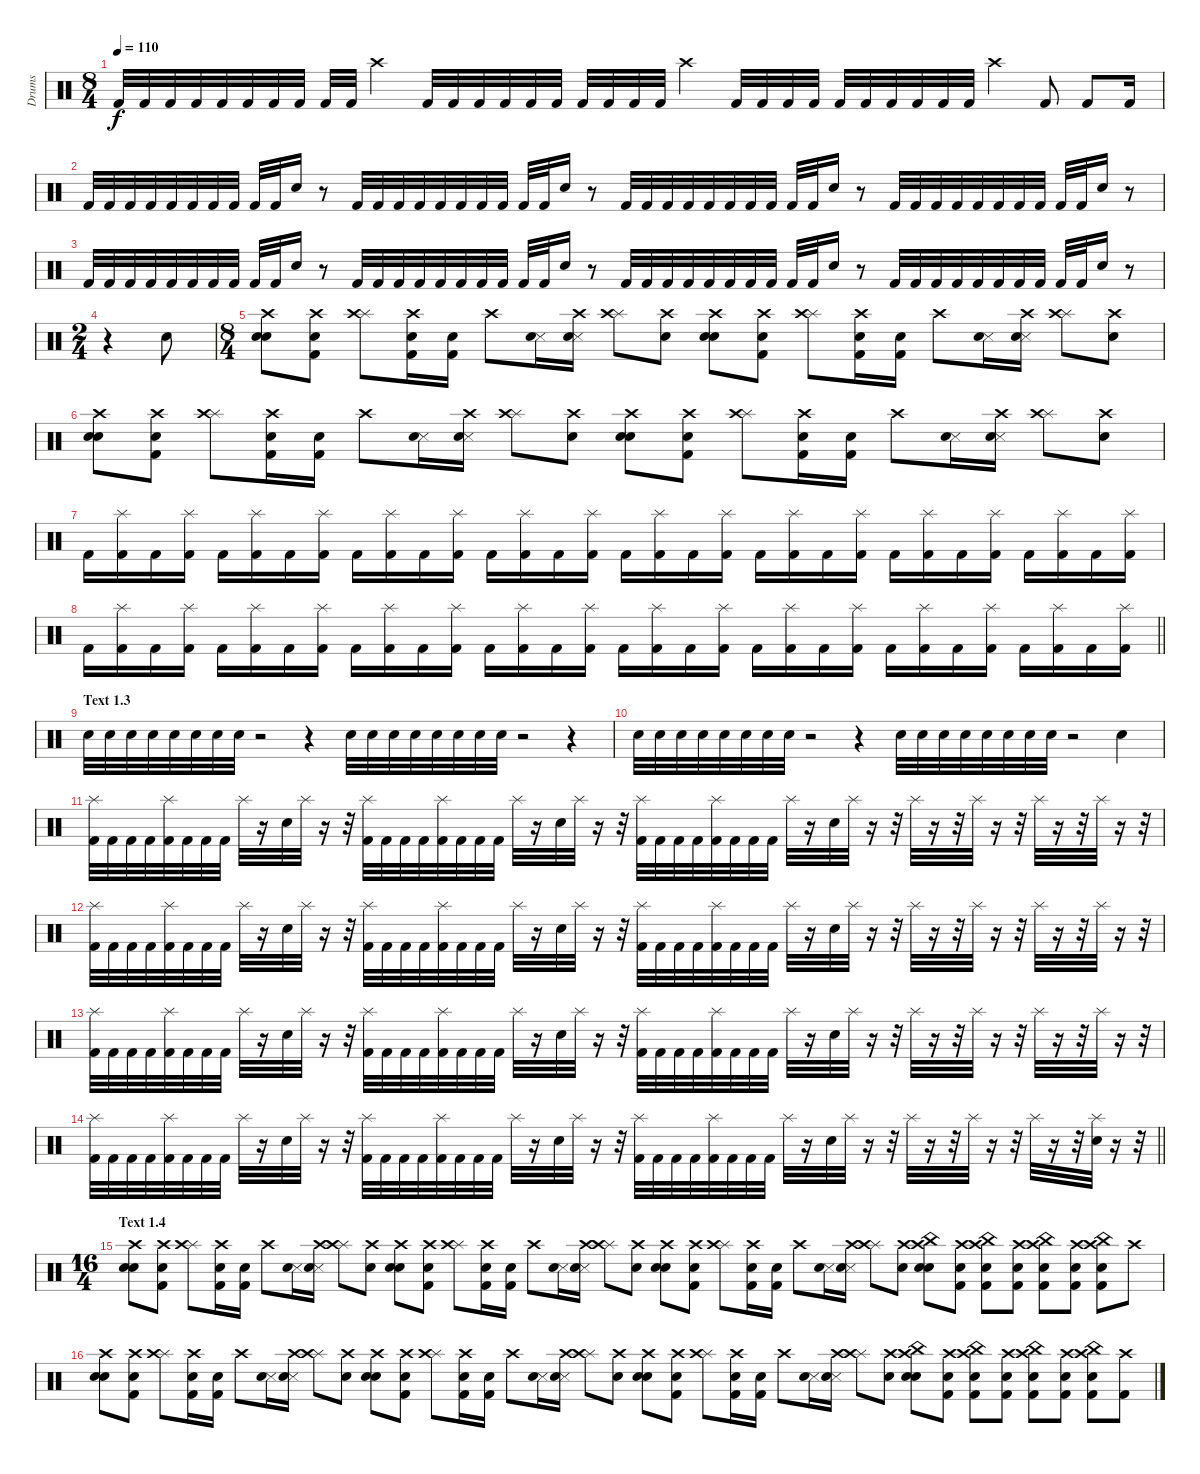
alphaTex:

\track ("Drums" "Drums") {instrument percussion}
\staff {score}
\articulation defaults
\ts (8 4)
\tempo 110
\clef neutral
\ks c "Kick (hit) 2".32{dy f} "Kick (hit) 2".32 "Kick (hit) 2".32 "Kick (hit) 2".32 "Kick (hit) 2".32 "Kick (hit) 2".32 "Kick (hit) 2".32 "Kick (hit) 2".32 "Kick (hit) 2".32 "Kick (hit) 2".32 "Crash high (hit)".4 "Kick (hit) 2".32 "Kick (hit) 2".32 "Kick (hit) 2".32 "Kick (hit) 2".32 "Kick (hit) 2".32 "Kick (hit) 2".32 "Kick (hit) 2".32 "Kick (hit) 2".32 "Kick (hit) 2".32 "Kick (hit) 2".32 "Crash high (hit)".4 "Kick (hit) 2".32 "Kick (hit) 2".32 "Kick (hit) 2".32 "Kick (hit) 2".32 "Kick (hit) 2".32 "Kick (hit) 2".32 "Kick (hit) 2".32 "Kick (hit) 2".32 "Kick (hit) 2".32 "Kick (hit) 2".32 "Crash high (hit)".4 "Kick (hit) 2".8 "Kick (hit) 2".8 "Kick (hit) 2".16
|
"Kick (hit) 2".32 "Kick (hit) 2".32 "Kick (hit) 2".32 "Kick (hit) 2".32 "Kick (hit) 2".32 "Kick (hit) 2".32 "Kick (hit) 2".32 "Kick (hit) 2".32 "Kick (hit) 2".32 "Kick (hit) 2".32 "Snare (hit) 2".16 r.8 "Kick (hit) 2".32 "Kick (hit) 2".32 "Kick (hit) 2".32 "Kick (hit) 2".32 "Kick (hit) 2".32 "Kick (hit) 2".32 "Kick (hit) 2".32 "Kick (hit) 2".32 "Kick (hit) 2".32 "Kick (hit) 2".32 "Snare (hit) 2".16 r.8 "Kick (hit) 2".32 "Kick (hit) 2".32 "Kick (hit) 2".32 "Kick (hit) 2".32 "Kick (hit) 2".32 "Kick (hit) 2".32 "Kick (hit) 2".32 "Kick (hit) 2".32 "Kick (hit) 2".32 "Kick (hit) 2".32 "Snare (hit) 2".16 r.8 "Kick (hit) 2".32 "Kick (hit) 2".32 "Kick (hit) 2".32 "Kick (hit) 2".32 "Kick (hit) 2".32 "Kick (hit) 2".32 "Kick (hit) 2".32 "Kick (hit) 2".32 "Kick (hit) 2".32 "Kick (hit) 2".32 "Snare (hit) 2".16 r.8 |
"Kick (hit) 2".32 "Kick (hit) 2".32 "Kick (hit) 2".32 "Kick (hit) 2".32 "Kick (hit) 2".32 "Kick (hit) 2".32 "Kick (hit) 2".32 "Kick (hit) 2".32 "Kick (hit) 2".32 "Kick (hit) 2".32 "Snare (hit) 2".16 r.8 "Kick (hit) 2".32 "Kick (hit) 2".32 "Kick (hit) 2".32 "Kick (hit) 2".32 "Kick (hit) 2".32 "Kick (hit) 2".32 "Kick (hit) 2".32 "Kick (hit) 2".32 "Kick (hit) 2".32 "Kick (hit) 2".32 "Snare (hit) 2".16 r.8 "Kick (hit) 2".32 "Kick (hit) 2".32 "Kick (hit) 2".32 "Kick (hit) 2".32 "Kick (hit) 2".32 "Kick (hit) 2".32 "Kick (hit) 2".32 "Kick (hit) 2".32 "Kick (hit) 2".32 "Kick (hit) 2".32 "Snare (hit) 2".16 r.8 "Kick (hit) 2".32 "Kick (hit) 2".32 "Kick (hit) 2".32 "Kick (hit) 2".32 "Kick (hit) 2".32 "Kick (hit) 2".32 "Kick (hit) 2".32 "Kick (hit) 2".32 "Kick (hit) 2".32 "Kick (hit) 2".32 "Snare (hit) 2".16 r.8 |
\ts (2 4)
r.4 "Snare (hit) 2".8 |
\ts (8 4)
("Metronome (bell)" "Snare (hit) 2" "Crash high (hit)").8 ("Kick (hit) 2" "Snare (hit) 2" "Crash high (hit)").8 ("Splash (hit)" "Crash high (hit)").8 ("Kick (hit) 2" "Snare (hit) 2" "Crash high (hit)").16 ("Kick (hit) 2" "Snare (hit) 2").16 "Crash high (hit)".8 ("Metronome (hit)" "Snare (hit) 2").16 ("Metronome (hit)" "Snare (hit) 2" "Crash high (hit)").16 ("Splash (hit)" "Crash high (hit)").8 ("Snare (hit) 2" "Crash high (hit)").8 ("Metronome (bell)" "Snare (hit) 2" "Crash high (hit)").8 ("Kick (hit) 2" "Snare (hit) 2" "Crash high (hit)").8 ("Splash (hit)" "Crash high (hit)").8 ("Kick (hit) 2" "Snare (hit) 2" "Crash high (hit)").16 ("Kick (hit) 2" "Snare (hit) 2").16 "Crash high (hit)".8 ("Metronome (hit)" "Snare (hit) 2").16 ("Metronome (hit)" "Snare (hit) 2" "Crash high (hit)").16 ("Splash (hit)" "Crash high (hit)").8 ("Snare (hit) 2" "Crash high (hit)").8 |
("Metronome (bell)" "Snare (hit) 2" "Crash high (hit)").8 ("Kick (hit) 2" "Snare (hit) 2" "Crash high (hit)").8 ("Splash (hit)" "Crash high (hit)").8 ("Kick (hit) 2" "Snare (hit) 2" "Crash high (hit)").16 ("Kick (hit) 2" "Snare (hit) 2").16 "Crash high (hit)".8 ("Metronome (hit)" "Snare (hit) 2").16 ("Metronome (hit)" "Snare (hit) 2" "Crash high (hit)").16 ("Splash (hit)" "Crash high (hit)").8 ("Snare (hit) 2" "Crash high (hit)").8 ("Metronome (bell)" "Snare (hit) 2" "Crash high (hit)").8 ("Kick (hit) 2" "Snare (hit) 2" "Crash high (hit)").8 ("Splash (hit)" "Crash high (hit)").8 ("Kick (hit) 2" "Snare (hit) 2" "Crash high (hit)").16 ("Kick (hit) 2" "Snare (hit) 2").16 "Crash high (hit)".8 ("Metronome (hit)" "Snare (hit) 2").16 ("Metronome (hit)" "Snare (hit) 2" "Crash high (hit)").16 ("Splash (hit)" "Crash high (hit)").8 ("Snare (hit) 2" "Crash high (hit)").8 |
"Kick (hit) 2".16 ("Kick (hit) 2" "Splash (hit)").16 "Kick (hit) 2".16 ("Kick (hit) 2" "Splash (hit)").16 "Kick (hit) 2".16 ("Kick (hit) 2" "Splash (hit)").16 "Kick (hit) 2".16 ("Kick (hit) 2" "Splash (hit)").16 "Kick (hit) 2".16 ("Kick (hit) 2" "Splash (hit)").16 "Kick (hit) 2".16 ("Kick (hit) 2" "Splash (hit)").16 "Kick (hit) 2".16 ("Kick (hit) 2" "Splash (hit)").16 "Kick (hit) 2".16 ("Kick (hit) 2" "Splash (hit)").16 "Kick (hit) 2".16 ("Kick (hit) 2" "Splash (hit)").16 "Kick (hit) 2".16 ("Kick (hit) 2" "Splash (hit)").16 "Kick (hit) 2".16 ("Kick (hit) 2" "Splash (hit)").16 "Kick (hit) 2".16 ("Kick (hit) 2" "Splash (hit)").16 "Kick (hit) 2".16 ("Kick (hit) 2" "Splash (hit)").16 "Kick (hit) 2".16 ("Kick (hit) 2" "Splash (hit)").16 "Kick (hit) 2".16 ("Kick (hit) 2" "Splash (hit)").16 "Kick (hit) 2".16 ("Kick (hit) 2" "Splash (hit)").16 |
\barLineRight lightlight "Kick (hit) 2".16
("Kick (hit) 2" "Splash (hit)").16 "Kick (hit) 2".16 ("Kick (hit) 2" "Splash (hit)").16 "Kick (hit) 2".16 ("Kick (hit) 2" "Splash (hit)").16 "Kick (hit) 2".16 ("Kick (hit) 2" "Splash (hit)").16 "Kick (hit) 2".16 ("Kick (hit) 2" "Splash (hit)").16 "Kick (hit) 2".16 ("Kick (hit) 2" "Splash (hit)").16 "Kick (hit) 2".16 ("Kick (hit) 2" "Splash (hit)").16 "Kick (hit) 2".16 ("Kick (hit) 2" "Splash (hit)").16 "Kick (hit) 2".16 ("Kick (hit) 2" "Splash (hit)").16 "Kick (hit) 2".16 ("Kick (hit) 2" "Splash (hit)").16 "Kick (hit) 2".16 ("Kick (hit) 2" "Splash (hit)").16 "Kick (hit) 2".16 ("Kick (hit) 2" "Splash (hit)").16 "Kick (hit) 2".16 ("Kick (hit) 2" "Splash (hit)").16 "Kick (hit) 2".16 ("Kick (hit) 2" "Splash (hit)").16 "Kick (hit) 2".16 ("Kick (hit) 2" "Splash (hit)").16 "Kick (hit) 2".16 ("Kick (hit) 2" "Splash (hit)").16 |
\section ("" "Text 1.3")
"Snare (hit) 2".32 "Snare (hit) 2".32 "Snare (hit) 2".32 "Snare (hit) 2".32 "Snare (hit) 2".32 "Snare (hit) 2".32 "Snare (hit) 2".32 "Snare (hit) 2".32 r.2 r.4 "Snare (hit) 2".32 "Snare (hit) 2".32 "Snare (hit) 2".32 "Snare (hit) 2".32 "Snare (hit) 2".32 "Snare (hit) 2".32 "Snare (hit) 2".32 "Snare (hit) 2".32 r.2 r.4 |
"Snare (hit) 2".32 "Snare (hit) 2".32 "Snare (hit) 2".32 "Snare (hit) 2".32 "Snare (hit) 2".32 "Snare (hit) 2".32 "Snare (hit) 2".32 "Snare (hit) 2".32 r.2 r.4 "Snare (hit) 2".32 "Snare (hit) 2".32 "Snare (hit) 2".32 "Snare (hit) 2".32 "Snare (hit) 2".32 "Snare (hit) 2".32 "Snare (hit) 2".32 "Snare (hit) 2".32 r.2 "Snare (hit) 2".4 |
("Kick (hit) 2" "Splash (hit)").32 "Kick (hit) 2".32 "Kick (hit) 2".32 "Kick (hit) 2".32 ("Kick (hit) 2" "Splash (hit)").32 "Kick (hit) 2".32 "Kick (hit) 2".32 "Kick (hit) 2".32 "Splash (hit)".32 r.16 "Snare (hit) 2".32 "Splash (hit)".32 r.16 r.32 ("Kick (hit) 2" "Splash (hit)").32 "Kick (hit) 2".32 "Kick (hit) 2".32 "Kick (hit) 2".32 ("Kick (hit) 2" "Splash (hit)").32 "Kick (hit) 2".32 "Kick (hit) 2".32 "Kick (hit) 2".32 "Splash (hit)".32 r.16 "Snare (hit) 2".32 "Splash (hit)".32 r.16 r.32 ("Kick (hit) 2" "Splash (hit)").32 "Kick (hit) 2".32 "Kick (hit) 2".32 "Kick (hit) 2".32 ("Kick (hit) 2" "Splash (hit)").32 "Kick (hit) 2".32 "Kick (hit) 2".32 "Kick (hit) 2".32 "Splash (hit)".32 r.16 "Snare (hit) 2".32 "Splash (hit)".32 r.16 r.32 "Splash (hit)".32 r.16 r.32 "Splash (hit)".32 r.16 r.32 "Splash (hit)".32 r.16 r.32 "Splash (hit)".32 r.16 r.32 |
("Kick (hit) 2" "Splash (hit)").32 "Kick (hit) 2".32 "Kick (hit) 2".32 "Kick (hit) 2".32 ("Kick (hit) 2" "Splash (hit)").32 "Kick (hit) 2".32 "Kick (hit) 2".32 "Kick (hit) 2".32 "Splash (hit)".32 r.16 "Snare (hit) 2".32 "Splash (hit)".32 r.16 r.32 ("Kick (hit) 2" "Splash (hit)").32 "Kick (hit) 2".32 "Kick (hit) 2".32 "Kick (hit) 2".32 ("Kick (hit) 2" "Splash (hit)").32 "Kick (hit) 2".32 "Kick (hit) 2".32 "Kick (hit) 2".32 "Splash (hit)".32 r.16 "Snare (hit) 2".32 "Splash (hit)".32 r.16 r.32 ("Kick (hit) 2" "Splash (hit)").32 "Kick (hit) 2".32 "Kick (hit) 2".32 "Kick (hit) 2".32 ("Kick (hit) 2" "Splash (hit)").32 "Kick (hit) 2".32 "Kick (hit) 2".32 "Kick (hit) 2".32 "Splash (hit)".32 r.16 "Snare (hit) 2".32 "Splash (hit)".32 r.16 r.32 "Splash (hit)".32 r.16 r.32 "Splash (hit)".32 r.16 r.32 "Splash (hit)".32 r.16 r.32 "Splash (hit)".32 r.16 r.32 |
("Kick (hit) 2" "Splash (hit)").32 "Kick (hit) 2".32 "Kick (hit) 2".32 "Kick (hit) 2".32 ("Kick (hit) 2" "Splash (hit)").32 "Kick (hit) 2".32 "Kick (hit) 2".32 "Kick (hit) 2".32 "Splash (hit)".32 r.16 "Snare (hit) 2".32 "Splash (hit)".32 r.16 r.32 ("Kick (hit) 2" "Splash (hit)").32 "Kick (hit) 2".32 "Kick (hit) 2".32 "Kick (hit) 2".32 ("Kick (hit) 2" "Splash (hit)").32 "Kick (hit) 2".32 "Kick (hit) 2".32 "Kick (hit) 2".32 "Splash (hit)".32 r.16 "Snare (hit) 2".32 "Splash (hit)".32 r.16 r.32 ("Kick (hit) 2" "Splash (hit)").32 "Kick (hit) 2".32 "Kick (hit) 2".32 "Kick (hit) 2".32 ("Kick (hit) 2" "Splash (hit)").32 "Kick (hit) 2".32 "Kick (hit) 2".32 "Kick (hit) 2".32 "Splash (hit)".32 r.16 "Snare (hit) 2".32 "Splash (hit)".32 r.16 r.32 "Splash (hit)".32 r.16 r.32 "Splash (hit)".32 r.16 r.32 "Splash (hit)".32 r.16 r.32 "Splash (hit)".32 r.16 r.32 |
\barLineRight lightlight
("Kick (hit) 2" "Splash (hit)").32 "Kick (hit) 2".32 "Kick (hit) 2".32 "Kick (hit) 2".32 ("Kick (hit) 2" "Splash (hit)").32 "Kick (hit) 2".32 "Kick (hit) 2".32 "Kick (hit) 2".32 "Splash (hit)".32 r.16 "Snare (hit) 2".32 "Splash (hit)".32 r.16 r.32 ("Kick (hit) 2" "Splash (hit)").32 "Kick (hit) 2".32 "Kick (hit) 2".32 "Kick (hit) 2".32 ("Kick (hit) 2" "Splash (hit)").32 "Kick (hit) 2".32 "Kick (hit) 2".32 "Kick (hit) 2".32 "Splash (hit)".32 r.16 "Snare (hit) 2".32 "Splash (hit)".32 r.16 r.32 ("Kick (hit) 2" "Splash (hit)").32 "Kick (hit) 2".32 "Kick (hit) 2".32 "Kick (hit) 2".32 ("Kick (hit) 2" "Splash (hit)").32 "Kick (hit) 2".32 "Kick (hit) 2".32 "Kick (hit) 2".32 "Splash (hit)".32 r.16 "Snare (hit) 2".32 "Splash (hit)".32 r.16 r.32 "Splash (hit)".32 r.16 r.32 "Splash (hit)".32 r.16 r.32 "Splash (hit)".32 r.16 r.32 ("Snare (hit) 2" "Splash (hit)").32 r.16 r.32 |
\ts (16 4)
\section ("" "Text 1.4")
("Metronome (bell)" "Snare (hit) 2" "Crash high (hit)").8 ("Kick (hit) 2" "Snare (hit) 2" "Crash high (hit)").8 ("Splash (hit)" "Crash high (hit)").8 ("Kick (hit) 2" "Snare (hit) 2" "Crash high (hit)").16 ("Kick (hit) 2" "Snare (hit) 2").16 "Crash high (hit)".8 ("Metronome (hit)" "Snare (hit) 2").16 ("Metronome (hit)" "Snare (hit) 2" "Crash high (hit)").16 ("Splash (hit)" "Crash high (hit)").8 ("Snare (hit) 2" "Crash high (hit)").8 ("Metronome (bell)" "Snare (hit) 2" "Crash high (hit)").8 ("Kick (hit) 2" "Snare (hit) 2" "Crash high (hit)").8 ("Splash (hit)" "Crash high (hit)").8 ("Kick (hit) 2" "Snare (hit) 2" "Crash high (hit)").16 ("Kick (hit) 2" "Snare (hit) 2").16 "Crash high (hit)".8 ("Metronome (hit)" "Snare (hit) 2").16 ("Metronome (hit)" "Snare (hit) 2" "Crash high (hit)").16 ("Splash (hit)" "Crash high (hit)").8 ("Snare (hit) 2" "Crash high (hit)").8 ("Metronome (bell)" "Snare (hit) 2" "Crash high (hit)").8 ("Kick (hit) 2" "Snare (hit) 2" "Crash high (hit)").8 ("Splash (hit)" "Crash high (hit)").8 ("Kick (hit) 2" "Snare (hit) 2" "Crash high (hit)").16 ("Kick (hit) 2" "Snare (hit) 2").16 "Crash high (hit)".8 ("Metronome (hit)" "Snare (hit) 2").16 ("Metronome (hit)" "Snare (hit) 2" "Crash high (hit)").16 ("Splash (hit)" "Crash high (hit)").8 ("Snare (hit) 2" "Crash high (hit)").8 ("Metronome (bell)" "Snare (hit) 2" "Crash high (hit)" "China (hit)").8 ("Kick (hit) 2" "Snare (hit) 2" "Crash high (hit)").8 ("Kick (hit) 2" "Snare (hit) 2" "Crash high (hit)" "China (hit)").8 ("Kick (hit) 2" "Snare (hit) 2" "Crash high (hit)").8 ("Kick (hit) 2" "Snare (hit) 2" "Crash high (hit)" "China (hit)").8 ("Kick (hit) 2" "Snare (hit) 2" "Crash high (hit)").8 ("Kick (hit) 2" "Snare (hit) 2" "Crash high (hit)" "China (hit)").8 "Crash high (hit)".8 |
("Metronome (bell)" "Snare (hit) 2" "Crash high (hit)").8 ("Kick (hit) 2" "Snare (hit) 2" "Crash high (hit)").8 ("Splash (hit)" "Crash high (hit)").8 ("Kick (hit) 2" "Snare (hit) 2" "Crash high (hit)").16 ("Kick (hit) 2" "Snare (hit) 2").16 "Crash high (hit)".8 ("Metronome (hit)" "Snare (hit) 2").16 ("Metronome (hit)" "Snare (hit) 2" "Crash high (hit)").16 ("Splash (hit)" "Crash high (hit)").8 ("Snare (hit) 2" "Crash high (hit)").8 ("Metronome (bell)" "Snare (hit) 2" "Crash high (hit)").8 ("Kick (hit) 2" "Snare (hit) 2" "Crash high (hit)").8 ("Splash (hit)" "Crash high (hit)").8 ("Kick (hit) 2" "Snare (hit) 2" "Crash high (hit)").16 ("Kick (hit) 2" "Snare (hit) 2").16 "Crash high (hit)".8 ("Metronome (hit)" "Snare (hit) 2").16 ("Metronome (hit)" "Snare (hit) 2" "Crash high (hit)").16 ("Splash (hit)" "Crash high (hit)").8 ("Snare (hit) 2" "Crash high (hit)").8 ("Metronome (bell)" "Snare (hit) 2" "Crash high (hit)").8 ("Kick (hit) 2" "Snare (hit) 2" "Crash high (hit)").8 ("Splash (hit)" "Crash high (hit)").8 ("Kick (hit) 2" "Snare (hit) 2" "Crash high (hit)").16 ("Kick (hit) 2" "Snare (hit) 2").16 "Crash high (hit)".8 ("Metronome (hit)" "Snare (hit) 2").16 ("Metronome (hit)" "Snare (hit) 2" "Crash high (hit)").16 ("Splash (hit)" "Crash high (hit)").8 ("Snare (hit) 2" "Crash high (hit)").8 ("Metronome (bell)" "Snare (hit) 2" "Crash high (hit)" "China (hit)").8 ("Kick (hit) 2" "Snare (hit) 2" "Crash high (hit)").8 ("Kick (hit) 2" "Snare (hit) 2" "Crash high (hit)" "China (hit)").8 ("Kick (hit) 2" "Snare (hit) 2" "Crash high (hit)").8 ("Kick (hit) 2" "Snare (hit) 2" "Crash high (hit)" "China (hit)").8 ("Kick (hit) 2" "Snare (hit) 2" "Crash high (hit)").8 ("Kick (hit) 2" "Snare (hit) 2" "Crash high (hit)" "China (hit)").8 ("Kick (hit) 2" "Crash high (hit)").8
